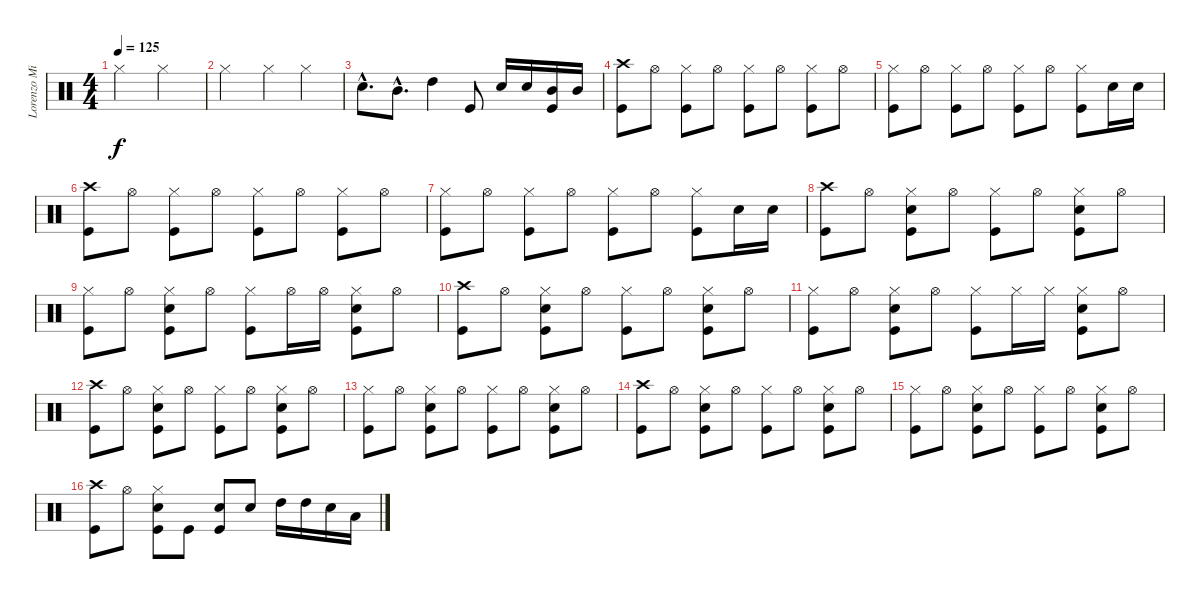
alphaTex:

\track ("Lorenzo Milani - drums" "Lorenzo Mi") {instrument percussion}
\staff {score}
\articulation defaults
\ts (4 4)
\tempo 125
\clef neutral
\ks c "Hi-Hat (closed)".2{dy f} "Hi-Hat (closed)".2
|
"Hi-Hat (closed)".2 "Hi-Hat (closed)".4 "Hi-Hat (closed)".4 |
"Electric Snare (hit)"{hac}.8{d} "Mid Tom (hit)"{hac}.8{d} "High Tom (hit)".4 "Kick (hit)".8 "Electric Snare (hit)".16 "Electric Snare (hit)".16 ("Mid Tom (hit)" "Kick (hit)").16 "Mid Tom (hit)".16 |
("Crash high (hit)" "Kick (hit)").8 "Hi-Hat (open)".8 ("Hi-Hat (closed)" "Kick (hit)").8 "Hi-Hat (open)".8 ("Hi-Hat (closed)" "Kick (hit)").8 "Hi-Hat (open)".8 ("Hi-Hat (closed)" "Kick (hit)").8 "Hi-Hat (open)".8 |
("Hi-Hat (closed)" "Kick (hit)").8 "Hi-Hat (open)".8 ("Hi-Hat (closed)" "Kick (hit)").8 "Hi-Hat (open)".8 ("Hi-Hat (closed)" "Kick (hit)").8 "Hi-Hat (open)".8 ("Hi-Hat (closed)" "Kick (hit)").8 "Electric Snare (hit)".16 "Electric Snare (hit)".16 |
("Crash high (hit)" "Kick (hit)").8 "Hi-Hat (open)".8 ("Hi-Hat (closed)" "Kick (hit)").8 "Hi-Hat (open)".8 ("Hi-Hat (closed)" "Kick (hit)").8 "Hi-Hat (open)".8 ("Hi-Hat (closed)" "Kick (hit)").8 "Hi-Hat (open)".8 |
("Hi-Hat (closed)" "Kick (hit)").8 "Hi-Hat (open)".8 ("Hi-Hat (closed)" "Kick (hit)").8 "Hi-Hat (open)".8 ("Hi-Hat (closed)" "Kick (hit)").8 "Hi-Hat (open)".8 ("Hi-Hat (closed)" "Kick (hit)").8 "Electric Snare (hit)".16 "Electric Snare (hit)".16 |
("Crash high (hit)" "Kick (hit)").8 "Hi-Hat (open)".8 ("Electric Snare (hit)" "Hi-Hat (closed)" "Kick (hit)").8 "Hi-Hat (open)".8 ("Hi-Hat (closed)" "Kick (hit)").8 "Hi-Hat (open)".8 ("Electric Snare (hit)" "Hi-Hat (closed)" "Kick (hit)").8 "Hi-Hat (open)".8 |
("Hi-Hat (closed)" "Kick (hit)").8 "Hi-Hat (open)".8 ("Electric Snare (hit)" "Hi-Hat (closed)" "Kick (hit)").8 "Hi-Hat (open)".8 ("Hi-Hat (closed)" "Kick (hit)").8 "Hi-Hat (open)".16 "Hi-Hat (open)".16 ("Electric Snare (hit)" "Hi-Hat (closed)" "Kick (hit)").8 "Hi-Hat (open)".8 |
("Crash high (hit)" "Kick (hit)").8 "Hi-Hat (open)".8 ("Electric Snare (hit)" "Hi-Hat (closed)" "Kick (hit)").8 "Hi-Hat (open)".8 ("Hi-Hat (closed)" "Kick (hit)").8 "Hi-Hat (open)".8 ("Electric Snare (hit)" "Hi-Hat (closed)" "Kick (hit)").8 "Hi-Hat (open)".8 |
("Hi-Hat (closed)" "Kick (hit)").8 "Hi-Hat (open)".8 ("Electric Snare (hit)" "Hi-Hat (closed)" "Kick (hit)").8 "Hi-Hat (open)".8 ("Hi-Hat (closed)" "Kick (hit)").8 "Hi-Hat (closed)".16 "Hi-Hat (closed)".16 ("Electric Snare (hit)" "Hi-Hat (closed)" "Kick (hit)").8 "Hi-Hat (open)".8 |
("Crash high (hit)" "Kick (hit)").8 "Hi-Hat (open)".8 ("Electric Snare (hit)" "Hi-Hat (closed)" "Kick (hit)").8 "Hi-Hat (open)".8 ("Hi-Hat (closed)" "Kick (hit)").8 "Hi-Hat (open)".8 ("Electric Snare (hit)" "Hi-Hat (closed)" "Kick (hit)").8 "Hi-Hat (open)".8 |
("Hi-Hat (closed)" "Kick (hit)").8 "Hi-Hat (open)".8 ("Electric Snare (hit)" "Hi-Hat (closed)" "Kick (hit)").8 "Hi-Hat (open)".8 ("Hi-Hat (closed)" "Kick (hit)").8 "Hi-Hat (open)".8 ("Electric Snare (hit)" "Hi-Hat (closed)" "Kick (hit)").8 "Hi-Hat (open)".8 |
("Crash high (hit)" "Kick (hit)").8 "Hi-Hat (open)".8 ("Electric Snare (hit)" "Hi-Hat (closed)" "Kick (hit)").8 "Hi-Hat (open)".8 ("Hi-Hat (closed)" "Kick (hit)").8 "Hi-Hat (open)".8 ("Electric Snare (hit)" "Hi-Hat (closed)" "Kick (hit)").8 "Hi-Hat (open)".8 |
("Hi-Hat (closed)" "Kick (hit)").8 "Hi-Hat (open)".8 ("Electric Snare (hit)" "Hi-Hat (closed)" "Kick (hit)").8 "Hi-Hat (open)".8 ("Hi-Hat (closed)" "Kick (hit)").8 "Hi-Hat (open)".8 ("Electric Snare (hit)" "Hi-Hat (closed)" "Kick (hit)").8 "Hi-Hat (open)".8 |
("Crash high (hit)" "Kick (hit)").8 "Hi-Hat (open)".8 ("Electric Snare (hit)" "Hi-Hat (closed)" "Kick (hit)").8 "Kick (hit)".8 ("Electric Snare (hit)" "Kick (hit)").8 "Electric Snare (hit)".8 "High Tom (hit)".16 "High Tom (hit)".16 "Electric Snare (hit)".16 "Low Tom (hit)".16
